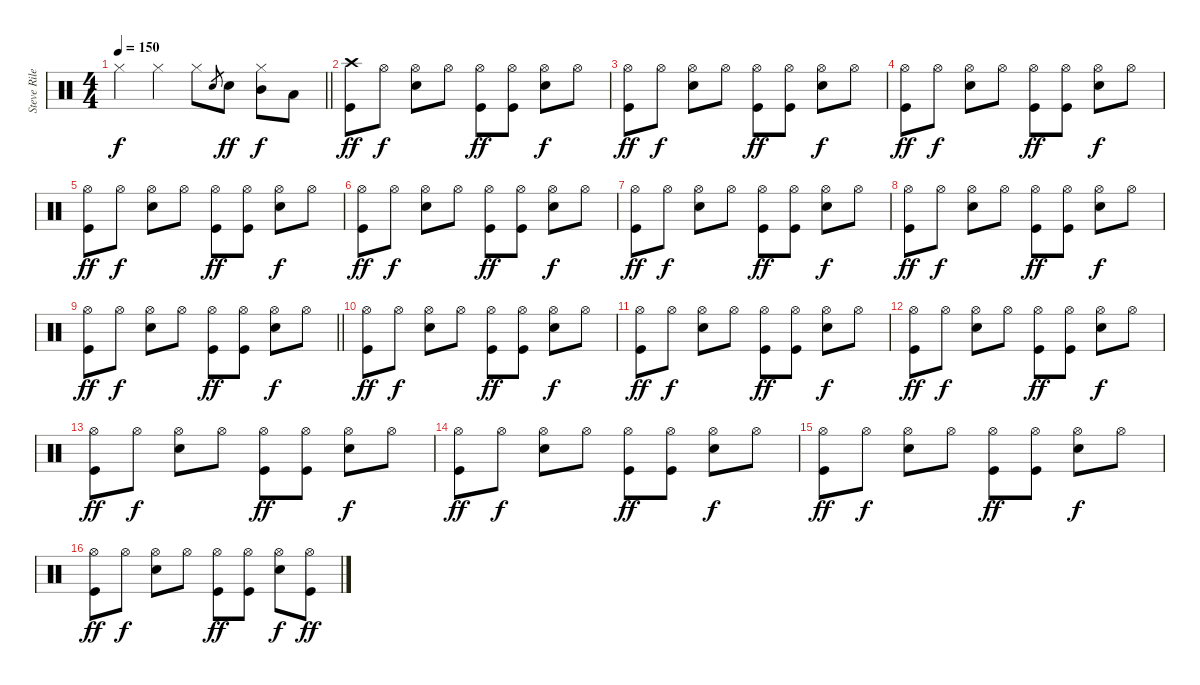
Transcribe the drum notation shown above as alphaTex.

\track ("Steve Riley" "Steve Rile") {instrument percussion}
\staff {score}
\articulation defaults
\ts (4 4)
\tempo 150
\clef neutral
\barLineRight lightlight
\ks c "Hi-Hat (closed)".4{dy f} "Hi-Hat (closed)".4 "Hi-Hat (closed)".8 "Snare (hit) 2".8{gr} "Snare (hit) 2".8{dy ff}
("Hi-Hat (closed)" "Mid Tom (hit)").8{dy f} "Low Tom (hit)".8 |
("Crash high (hit)" "Kick (hit)").8{dy ff} "Hi-Hat (open)".8{dy f} ("Hi-Hat (open)" "Snare (hit) 2").8 "Hi-Hat (open)".8 ("Hi-Hat (open)" "Kick (hit)").8{dy ff} ("Hi-Hat (open)" "Kick (hit)").8 ("Hi-Hat (open)" "Snare (hit) 2").8{dy f} "Hi-Hat (open)".8 |
("Hi-Hat (open)" "Kick (hit)").8{dy ff} "Hi-Hat (open)".8{dy f} ("Hi-Hat (open)" "Snare (hit) 2").8 "Hi-Hat (open)".8 ("Hi-Hat (open)" "Kick (hit)").8{dy ff} ("Hi-Hat (open)" "Kick (hit)").8 ("Hi-Hat (open)" "Snare (hit) 2").8{dy f} "Hi-Hat (open)".8 |
("Hi-Hat (open)" "Kick (hit)").8{dy ff} "Hi-Hat (open)".8{dy f} ("Hi-Hat (open)" "Snare (hit) 2").8 "Hi-Hat (open)".8 ("Hi-Hat (open)" "Kick (hit)").8{dy ff} ("Hi-Hat (open)" "Kick (hit)").8 ("Hi-Hat (open)" "Snare (hit) 2").8{dy f} "Hi-Hat (open)".8 |
("Hi-Hat (open)" "Kick (hit)").8{dy ff} "Hi-Hat (open)".8{dy f} ("Hi-Hat (open)" "Snare (hit) 2").8 "Hi-Hat (open)".8 ("Hi-Hat (open)" "Kick (hit)").8{dy ff} ("Hi-Hat (open)" "Kick (hit)").8 ("Hi-Hat (open)" "Snare (hit) 2").8{dy f} "Hi-Hat (open)".8 |
("Hi-Hat (open)" "Kick (hit)").8{dy ff} "Hi-Hat (open)".8{dy f} ("Hi-Hat (open)" "Snare (hit) 2").8 "Hi-Hat (open)".8 ("Hi-Hat (open)" "Kick (hit)").8{dy ff} ("Hi-Hat (open)" "Kick (hit)").8 ("Hi-Hat (open)" "Snare (hit) 2").8{dy f} "Hi-Hat (open)".8 |
("Hi-Hat (open)" "Kick (hit)").8{dy ff} "Hi-Hat (open)".8{dy f} ("Hi-Hat (open)" "Snare (hit) 2").8 "Hi-Hat (open)".8 ("Hi-Hat (open)" "Kick (hit)").8{dy ff} ("Hi-Hat (open)" "Kick (hit)").8 ("Hi-Hat (open)" "Snare (hit) 2").8{dy f} "Hi-Hat (open)".8 |
("Hi-Hat (open)" "Kick (hit)").8{dy ff} "Hi-Hat (open)".8{dy f} ("Hi-Hat (open)" "Snare (hit) 2").8 "Hi-Hat (open)".8 ("Hi-Hat (open)" "Kick (hit)").8{dy ff} ("Hi-Hat (open)" "Kick (hit)").8 ("Hi-Hat (open)" "Snare (hit) 2").8{dy f} "Hi-Hat (open)".8 |
\barLineRight lightlight
("Hi-Hat (open)" "Kick (hit)").8{dy ff} "Hi-Hat (open)".8{dy f} ("Hi-Hat (open)" "Snare (hit) 2").8 "Hi-Hat (open)".8 ("Hi-Hat (open)" "Kick (hit)").8{dy ff} ("Hi-Hat (open)" "Kick (hit)").8 ("Hi-Hat (open)" "Snare (hit) 2").8{dy f} "Hi-Hat (open)".8 |
("Hi-Hat (open)" "Kick (hit)").8{dy ff} "Hi-Hat (open)".8{dy f} ("Hi-Hat (open)" "Snare (hit) 2").8 "Hi-Hat (open)".8 ("Hi-Hat (open)" "Kick (hit)").8{dy ff} ("Hi-Hat (open)" "Kick (hit)").8 ("Hi-Hat (open)" "Snare (hit) 2").8{dy f} "Hi-Hat (open)".8 |
("Hi-Hat (open)" "Kick (hit)").8{dy ff} "Hi-Hat (open)".8{dy f} ("Hi-Hat (open)" "Snare (hit) 2").8 "Hi-Hat (open)".8 ("Hi-Hat (open)" "Kick (hit)").8{dy ff} ("Hi-Hat (open)" "Kick (hit)").8 ("Hi-Hat (open)" "Snare (hit) 2").8{dy f} "Hi-Hat (open)".8 |
("Hi-Hat (open)" "Kick (hit)").8{dy ff} "Hi-Hat (open)".8{dy f} ("Hi-Hat (open)" "Snare (hit) 2").8 "Hi-Hat (open)".8 ("Hi-Hat (open)" "Kick (hit)").8{dy ff} ("Hi-Hat (open)" "Kick (hit)").8 ("Hi-Hat (open)" "Snare (hit) 2").8{dy f} "Hi-Hat (open)".8 |
("Hi-Hat (open)" "Kick (hit)").8{dy ff} "Hi-Hat (open)".8{dy f} ("Hi-Hat (open)" "Snare (hit) 2").8 "Hi-Hat (open)".8 ("Hi-Hat (open)" "Kick (hit)").8{dy ff} ("Hi-Hat (open)" "Kick (hit)").8 ("Hi-Hat (open)" "Snare (hit) 2").8{dy f} "Hi-Hat (open)".8 |
("Hi-Hat (open)" "Kick (hit)").8{dy ff} "Hi-Hat (open)".8{dy f} ("Hi-Hat (open)" "Snare (hit) 2").8 "Hi-Hat (open)".8 ("Hi-Hat (open)" "Kick (hit)").8{dy ff} ("Hi-Hat (open)" "Kick (hit)").8 ("Hi-Hat (open)" "Snare (hit) 2").8{dy f} "Hi-Hat (open)".8 |
("Hi-Hat (open)" "Kick (hit)").8{dy ff} "Hi-Hat (open)".8{dy f} ("Hi-Hat (open)" "Snare (hit) 2").8 "Hi-Hat (open)".8 ("Hi-Hat (open)" "Kick (hit)").8{dy ff} ("Hi-Hat (open)" "Kick (hit)").8 ("Hi-Hat (open)" "Snare (hit) 2").8{dy f} "Hi-Hat (open)".8 |
("Hi-Hat (open)" "Kick (hit)").8{dy ff} "Hi-Hat (open)".8{dy f} ("Hi-Hat (open)" "Snare (hit) 2").8 "Hi-Hat (open)".8 ("Hi-Hat (open)" "Kick (hit)").8{dy ff} ("Hi-Hat (open)" "Kick (hit)").8 ("Hi-Hat (open)" "Snare (hit) 2").8{dy f} ("Hi-Hat (open)" "Kick (hit)").8{dy ff}
